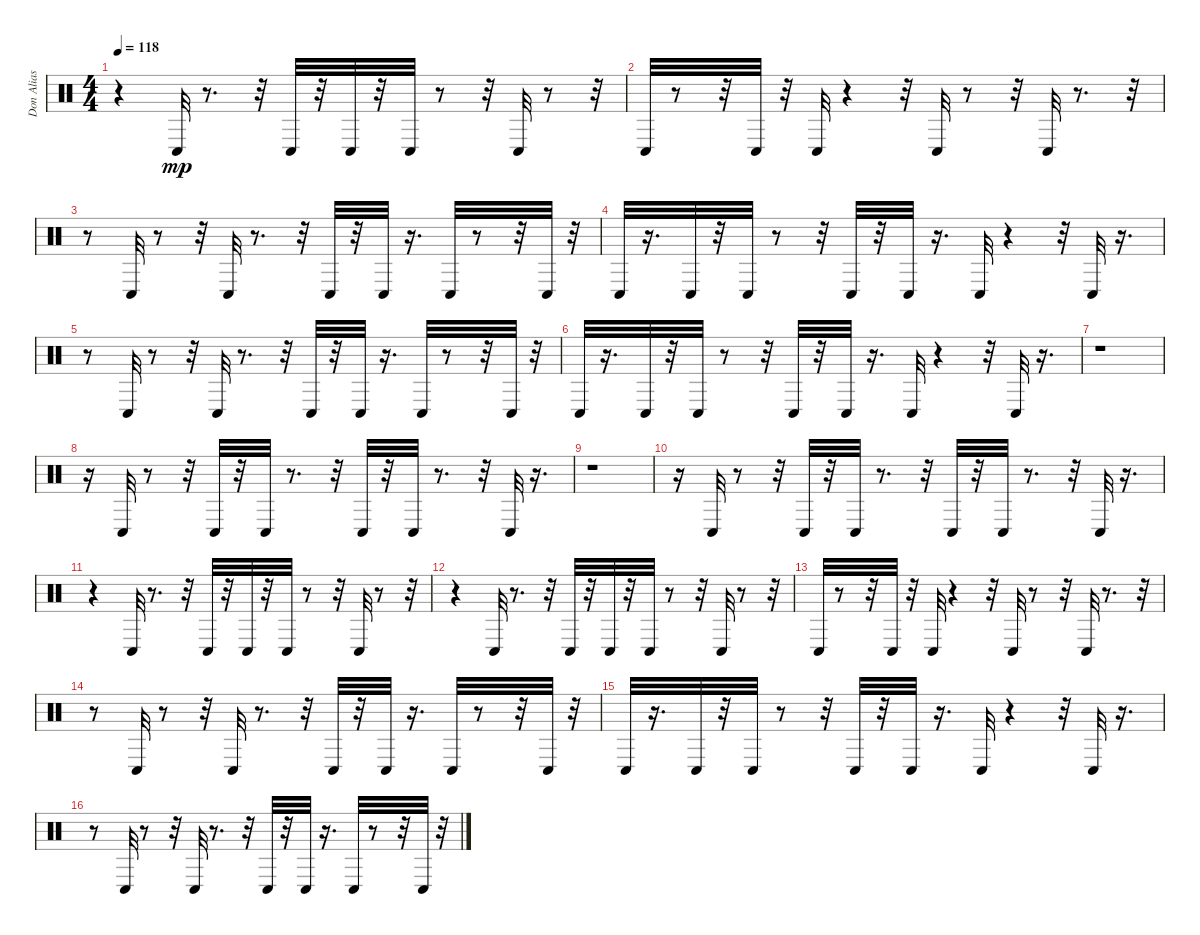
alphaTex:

\track ("Don Alias" "Don Alias") {instrument percussion}
\staff {score}
\articulation defaults
\ts (4 4)
\tempo 118
\clef neutral
\ks c
r.4{dy mp} "Conga low (hit)".32 r.8{d} r.32 "Conga low (hit)".32 r.32 "Conga low (hit)".32 r.32 "Conga low (hit)".32 r.8 r.32 "Conga low (hit)".32 r.8 r.32 |
"Conga low (hit)".32 r.8 r.32 "Conga low (hit)".32 r.32 "Conga low (hit)".32 r.4 r.32 "Conga low (hit)".32 r.8 r.32 "Conga low (hit)".32 r.8{d} r.32 |
r.8 "Conga low (hit)".32 r.8 r.32 "Conga low (hit)".32 r.8{d} r.32 "Conga low (hit)".32 r.32 "Conga low (hit)".32 r.16{d} "Conga low (hit)".32 r.8 r.32 "Conga low (hit)".32 r.32 |
"Conga low (hit)".32 r.16{d} "Conga low (hit)".32 r.32 "Conga low (hit)".32 r.8 r.32 "Conga low (hit)".32 r.32 "Conga low (hit)".32 r.16{d} "Conga low (hit)".32 r.4 r.32 "Conga low (hit)".32 r.16{d} |
r.8 "Conga low (hit)".32 r.8 r.32 "Conga low (hit)".32 r.8{d} r.32 "Conga low (hit)".32 r.32 "Conga low (hit)".32 r.16{d} "Conga low (hit)".32 r.8 r.32 "Conga low (hit)".32 r.32 |
"Conga low (hit)".32 r.16{d} "Conga low (hit)".32 r.32 "Conga low (hit)".32 r.8 r.32 "Conga low (hit)".32 r.32 "Conga low (hit)".32 r.16{d} "Conga low (hit)".32 r.4 r.32 "Conga low (hit)".32 r.16{d} |
r.1 |
r.16 "Conga low (hit)".32 r.8 r.32 "Conga low (hit)".32 r.32 "Conga low (hit)".32 r.8{d} r.32 "Conga low (hit)".32 r.32 "Conga low (hit)".32 r.8{d} r.32 "Conga low (hit)".32 r.16{d} |
r.1 |
r.16 "Conga low (hit)".32 r.8 r.32 "Conga low (hit)".32 r.32 "Conga low (hit)".32 r.8{d} r.32 "Conga low (hit)".32 r.32 "Conga low (hit)".32 r.8{d} r.32 "Conga low (hit)".32 r.16{d} |
r.4 "Conga low (hit)".32 r.8{d} r.32 "Conga low (hit)".32 r.32 "Conga low (hit)".32 r.32 "Conga low (hit)".32 r.8 r.32 "Conga low (hit)".32 r.8 r.32 |
r.4 "Conga low (hit)".32 r.8{d} r.32 "Conga low (hit)".32 r.32 "Conga low (hit)".32 r.32 "Conga low (hit)".32 r.8 r.32 "Conga low (hit)".32 r.8 r.32 |
"Conga low (hit)".32 r.8 r.32 "Conga low (hit)".32 r.32 "Conga low (hit)".32 r.4 r.32 "Conga low (hit)".32 r.8 r.32 "Conga low (hit)".32 r.8{d} r.32 |
r.8 "Conga low (hit)".32 r.8 r.32 "Conga low (hit)".32 r.8{d} r.32 "Conga low (hit)".32 r.32 "Conga low (hit)".32 r.16{d} "Conga low (hit)".32 r.8 r.32 "Conga low (hit)".32 r.32 |
"Conga low (hit)".32 r.16{d} "Conga low (hit)".32 r.32 "Conga low (hit)".32 r.8 r.32 "Conga low (hit)".32 r.32 "Conga low (hit)".32 r.16{d} "Conga low (hit)".32 r.4 r.32 "Conga low (hit)".32 r.16{d} |
r.8 "Conga low (hit)".32 r.8 r.32 "Conga low (hit)".32 r.8{d} r.32 "Conga low (hit)".32 r.32 "Conga low (hit)".32 r.16{d} "Conga low (hit)".32 r.8 r.32 "Conga low (hit)".32 r.32
